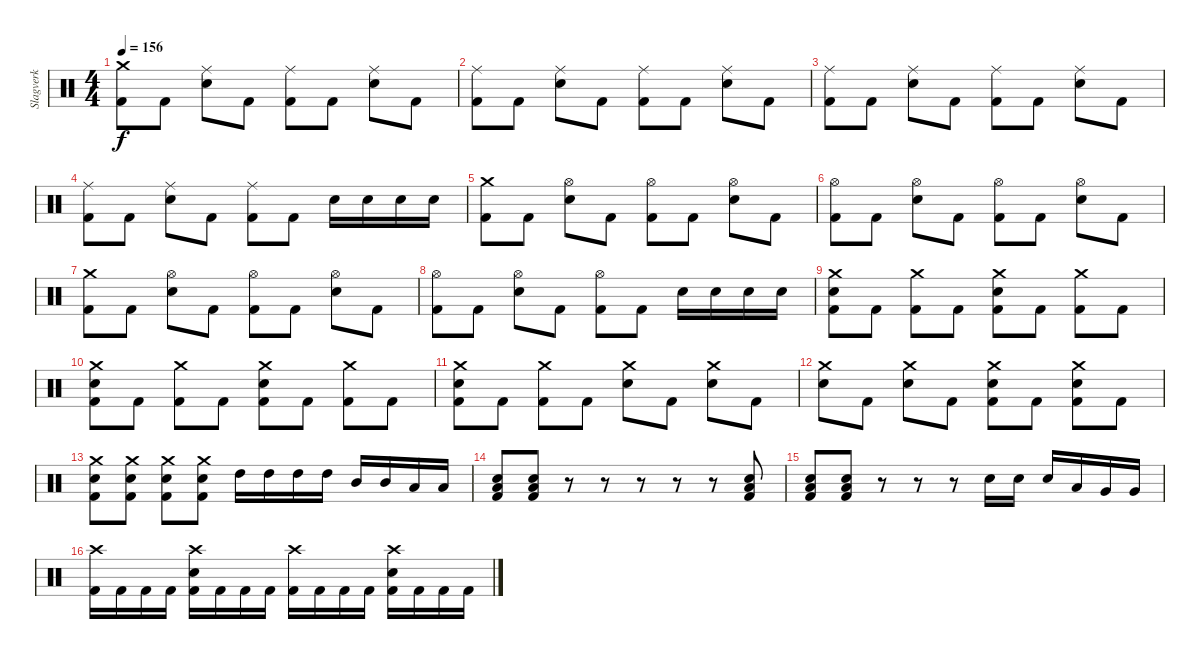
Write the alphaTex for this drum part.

\track ("Slagverk" "Slagverk") {instrument percussion}
\staff {score}
\articulation defaults
\ts (4 4)
\tempo 156
\clef neutral
\ks c
("Crash medium (hit)" "Kick (hit) 2").8{dy f} "Kick (hit) 2".8 ("Ride (middle)" "Snare (hit) 2").8 "Kick (hit) 2".8 ("Ride (middle)" "Kick (hit) 2").8 "Kick (hit) 2".8 ("Ride (middle)" "Snare (hit) 2").8 "Kick (hit) 2".8 |
("Ride (middle)" "Kick (hit) 2").8 "Kick (hit) 2".8 ("Ride (middle)" "Snare (hit) 2").8 "Kick (hit) 2".8 ("Ride (middle)" "Kick (hit) 2").8 "Kick (hit) 2".8 ("Ride (middle)" "Snare (hit) 2").8 "Kick (hit) 2".8 |
("Ride (middle)" "Kick (hit) 2").8 "Kick (hit) 2".8 ("Ride (middle)" "Snare (hit) 2").8 "Kick (hit) 2".8 ("Ride (middle)" "Kick (hit) 2").8 "Kick (hit) 2".8 ("Ride (middle)" "Snare (hit) 2").8 "Kick (hit) 2".8 |
("Ride (middle)" "Kick (hit) 2").8 "Kick (hit) 2".8 ("Ride (middle)" "Snare (hit) 2").8 "Kick (hit) 2".8 ("Ride (middle)" "Kick (hit) 2").8 "Kick (hit) 2".8 "Snare (hit) 2".16 "Snare (hit) 2".16 "Snare (hit) 2".16 "Snare (hit) 2".16 |
("Crash medium (hit)" "Kick (hit) 2").8 "Kick (hit) 2".8 ("Hi-Hat (open)" "Snare (hit) 2").8 "Kick (hit) 2".8 ("Hi-Hat (open)" "Kick (hit) 2").8 "Kick (hit) 2".8 ("Hi-Hat (open)" "Snare (hit) 2").8 "Kick (hit) 2".8 |
("Hi-Hat (open)" "Kick (hit) 2").8 "Kick (hit) 2".8 ("Hi-Hat (open)" "Snare (hit) 2").8 "Kick (hit) 2".8 ("Hi-Hat (open)" "Kick (hit) 2").8 "Kick (hit) 2".8 ("Hi-Hat (open)" "Snare (hit) 2").8 "Kick (hit) 2".8 |
("Crash medium (hit)" "Kick (hit) 2").8 "Kick (hit) 2".8 ("Hi-Hat (open)" "Snare (hit) 2").8 "Kick (hit) 2".8 ("Hi-Hat (open)" "Kick (hit) 2").8 "Kick (hit) 2".8 ("Hi-Hat (open)" "Snare (hit) 2").8 "Kick (hit) 2".8 |
("Hi-Hat (open)" "Kick (hit) 2").8 "Kick (hit) 2".8 ("Hi-Hat (open)" "Snare (hit) 2").8 "Kick (hit) 2".8 ("Hi-Hat (open)" "Kick (hit) 2").8 "Kick (hit) 2".8 "Snare (hit) 2".16 "Snare (hit) 2".16 "Snare (hit) 2".16 "Snare (hit) 2".16 |
("Crash medium (hit)" "Snare (hit) 2" "Kick (hit) 2").8 "Kick (hit) 2".8 ("Crash medium (hit)" "Kick (hit) 2").8 "Kick (hit) 2".8 ("Crash medium (hit)" "Snare (hit) 2" "Kick (hit) 2").8 "Kick (hit) 2".8 ("Crash medium (hit)" "Kick (hit) 2").8 "Kick (hit) 2".8 |
("Crash medium (hit)" "Snare (hit) 2" "Kick (hit) 2").8 "Kick (hit) 2".8 ("Crash medium (hit)" "Kick (hit) 2").8 "Kick (hit) 2".8 ("Crash medium (hit)" "Snare (hit) 2" "Kick (hit) 2").8 "Kick (hit) 2".8 ("Crash medium (hit)" "Kick (hit) 2").8 "Kick (hit) 2".8 |
("Crash medium (hit)" "Snare (hit) 2" "Kick (hit) 2").8 "Kick (hit) 2".8 ("Crash medium (hit)" "Kick (hit) 2").8 "Kick (hit) 2".8 ("Crash medium (hit)" "Snare (hit) 2").8 "Kick (hit) 2".8 ("Crash medium (hit)" "Snare (hit) 2").8 "Kick (hit) 2".8 |
("Crash medium (hit)" "Snare (hit) 2").8 "Kick (hit) 2".8 ("Crash medium (hit)" "Snare (hit) 2").8 "Kick (hit) 2".8 ("Crash medium (hit)" "Snare (hit) 2" "Kick (hit) 2").8 "Kick (hit) 2".8 ("Crash medium (hit)" "Snare (hit) 2" "Kick (hit) 2").8 "Kick (hit) 2".8 |
("Crash medium (hit)" "Snare (hit) 2" "Kick (hit) 2").8 ("Crash medium (hit)" "Snare (hit) 2" "Kick (hit) 2").8 ("Crash medium (hit)" "Snare (hit) 2" "Kick (hit) 2").8 ("Crash medium (hit)" "Snare (hit) 2" "Kick (hit) 2").8 "High Tom (hit)".16 "High Tom (hit)".16 "High Tom (hit)".16 "High Tom (hit)".16 "Mid Tom (hit)".16 "Mid Tom (hit)".16 "Low Tom (hit)".16 "Low Tom (hit)".16 |
("Low Floor Tom (hit)" "Snare (hit) 2" "Kick (hit) 2").8 ("Low Floor Tom (hit)" "Snare (hit) 2" "Kick (hit) 2").8 r.8 r.8 r.8 r.8 r.8 ("Low Floor Tom (hit)" "Snare (hit) 2" "Kick (hit) 2").8 |
("Low Floor Tom (hit)" "Snare (hit) 2" "Kick (hit) 2").8 ("Low Floor Tom (hit)" "Snare (hit) 2" "Kick (hit) 2").8 r.8 r.8 r.8 "Snare (hit) 2".16 "Snare (hit) 2".16 "Snare (hit) 2".16 "Low Tom (hit)".16 "Very Low Tom (hit)".16 "Very Low Tom (hit)".16 |
("Crash high (hit)" "Kick (hit) 2").16 "Kick (hit) 2".16 "Kick (hit) 2".16 "Kick (hit) 2".16 ("Crash high (hit)" "Snare (hit) 2" "Kick (hit) 2").16 "Kick (hit) 2".16 "Kick (hit) 2".16 "Kick (hit) 2".16 ("Crash high (hit)" "Kick (hit) 2").16 "Kick (hit) 2".16 "Kick (hit) 2".16 "Kick (hit) 2".16 ("Crash high (hit)" "Snare (hit) 2" "Kick (hit) 2").16 "Kick (hit) 2".16 "Kick (hit) 2".16 "Kick (hit) 2".16
